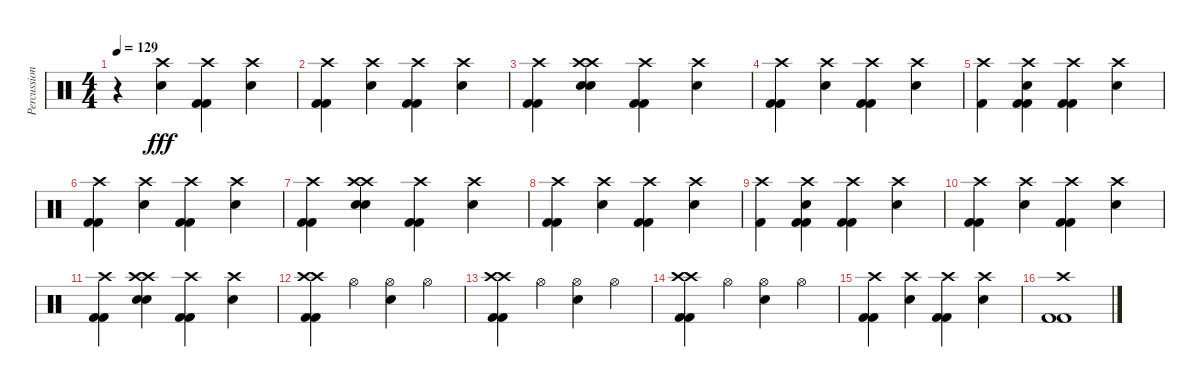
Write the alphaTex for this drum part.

\track ("Percussioni" "Percussion") {instrument percussion}
\staff {score}
\articulation defaults
\ts (4 4)
\tempo 129
\clef neutral
\ks c
r.4{dy fff} ("Crash high (hit)" "Snare (hit) 2").4 ("Crash high (hit)" "Kick (hit) 2" "Kick (hit) 2").4 ("Crash high (hit)" "Snare (hit) 2").4 |
("Crash high (hit)" "Kick (hit) 2" "Kick (hit) 2").4 ("Crash high (hit)" "Snare (hit) 2").4 ("Crash high (hit)" "Kick (hit) 2" "Kick (hit) 2").4 ("Crash high (hit)" "Snare (hit) 2").4 |
("Crash high (hit)" "Kick (hit) 2" "Kick (hit) 2").4 ("Crash high (hit)" "Crash high (hit)" "Snare (hit) 2" "Snare (hit) 2").4 ("Crash high (hit)" "Kick (hit) 2" "Kick (hit) 2").4 ("Crash high (hit)" "Snare (hit) 2").4 |
("Crash high (hit)" "Kick (hit) 2" "Kick (hit) 2").4 ("Crash high (hit)" "Snare (hit) 2").4 ("Crash high (hit)" "Kick (hit) 2" "Kick (hit) 2").4 ("Crash high (hit)" "Snare (hit) 2").4 |
("Crash high (hit)" "Kick (hit) 2").4 ("Crash high (hit)" "Snare (hit) 2" "Kick (hit) 2" "Kick (hit) 2").4 ("Crash high (hit)" "Kick (hit) 2" "Kick (hit) 2").4 ("Crash high (hit)" "Snare (hit) 2").4 |
("Crash high (hit)" "Kick (hit) 2" "Kick (hit) 2").4 ("Crash high (hit)" "Snare (hit) 2").4 ("Crash high (hit)" "Kick (hit) 2" "Kick (hit) 2").4 ("Crash high (hit)" "Snare (hit) 2").4 |
("Crash high (hit)" "Kick (hit) 2" "Kick (hit) 2").4 ("Crash high (hit)" "Crash high (hit)" "Snare (hit) 2" "Snare (hit) 2").4 ("Crash high (hit)" "Kick (hit) 2" "Kick (hit) 2").4 ("Crash high (hit)" "Snare (hit) 2").4 |
("Crash high (hit)" "Kick (hit) 2" "Kick (hit) 2").4 ("Crash high (hit)" "Snare (hit) 2").4 ("Crash high (hit)" "Kick (hit) 2" "Kick (hit) 2").4 ("Crash high (hit)" "Snare (hit) 2").4 |
("Crash high (hit)" "Kick (hit) 2").4 ("Crash high (hit)" "Snare (hit) 2" "Kick (hit) 2" "Kick (hit) 2").4 ("Crash high (hit)" "Kick (hit) 2" "Kick (hit) 2").4 ("Crash high (hit)" "Snare (hit) 2").4 |
("Crash high (hit)" "Kick (hit) 2" "Kick (hit) 2").4 ("Crash high (hit)" "Snare (hit) 2").4 ("Crash high (hit)" "Kick (hit) 2" "Kick (hit) 2").4 ("Crash high (hit)" "Snare (hit) 2").4 |
("Crash high (hit)" "Kick (hit) 2" "Kick (hit) 2").4 ("Crash high (hit)" "Crash high (hit)" "Snare (hit) 2" "Snare (hit) 2").4 ("Crash high (hit)" "Kick (hit) 2" "Kick (hit) 2").4 ("Crash high (hit)" "Snare (hit) 2").4 |
("Crash high (hit)" "Crash high (hit)" "Kick (hit) 2" "Kick (hit) 2").4 "Hi-Hat (open)".4 ("Hi-Hat (open)" "Snare (hit) 2").4 "Hi-Hat (open)".4 |
("Crash high (hit)" "Crash high (hit)" "Kick (hit) 2" "Kick (hit) 2").4 "Hi-Hat (open)".4 ("Hi-Hat (open)" "Snare (hit) 2").4 "Hi-Hat (open)".4 |
("Crash high (hit)" "Crash high (hit)" "Kick (hit) 2" "Kick (hit) 2").4 "Hi-Hat (open)".4 ("Hi-Hat (open)" "Snare (hit) 2").4 "Hi-Hat (open)".4 |
("Crash high (hit)" "Kick (hit) 2" "Kick (hit) 2").4 ("Crash high (hit)" "Snare (hit) 2").4 ("Crash high (hit)" "Kick (hit) 2" "Kick (hit) 2").4 ("Crash high (hit)" "Snare (hit) 2").4 |
("Crash high (hit)" "Kick (hit) 2" "Kick (hit) 2").1
